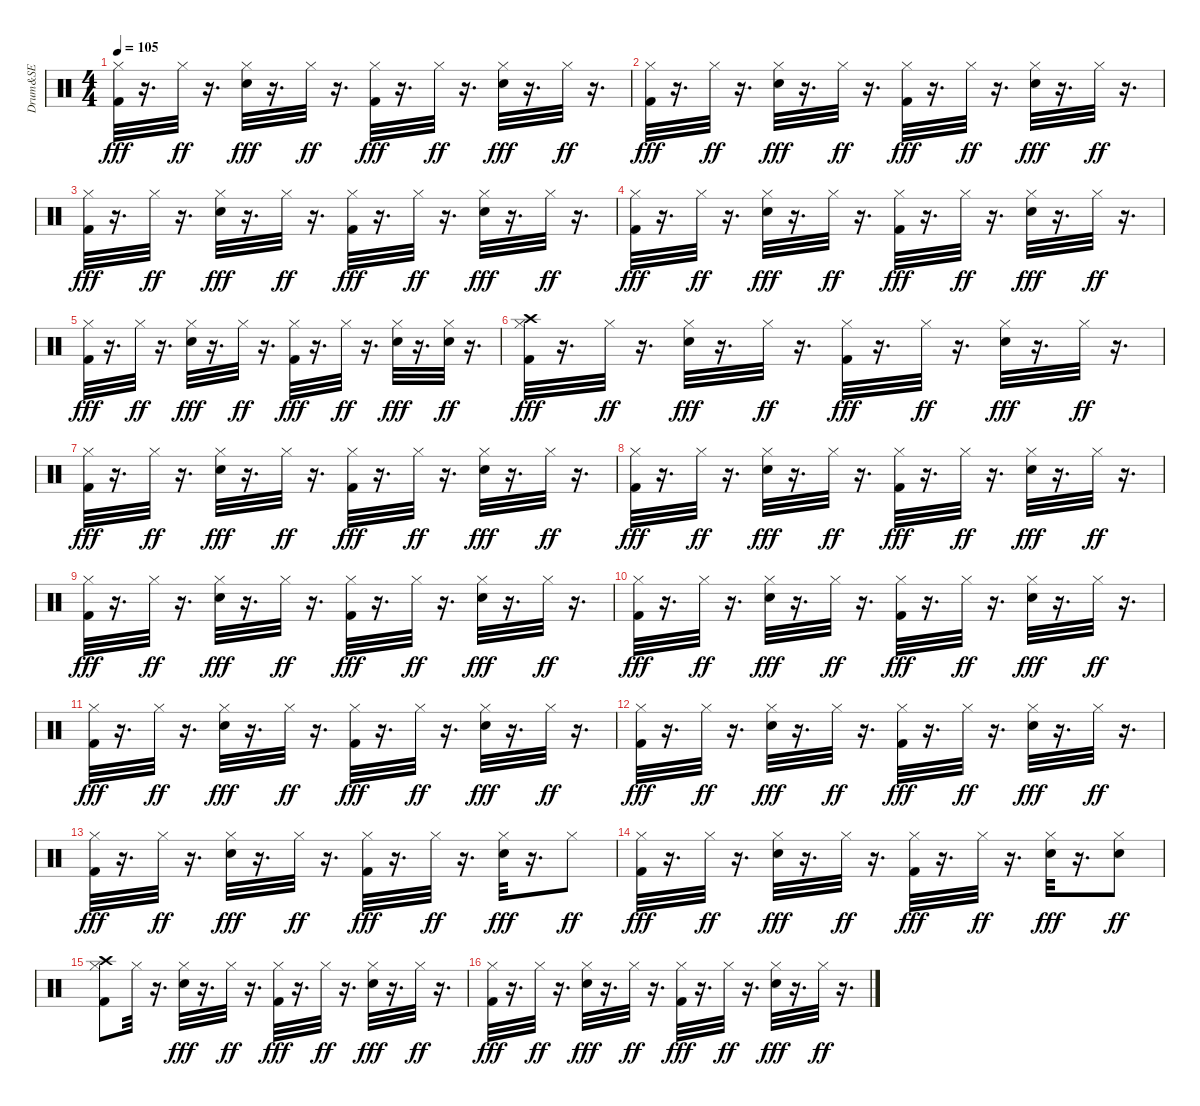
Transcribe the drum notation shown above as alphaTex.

\track ("Drum&SE" "Drum&SE") {instrument percussion}
\staff {score}
\articulation defaults
\ts (4 4)
\tempo 105
\clef neutral
\ks c
("Kick (hit) 2" "Hi-Hat (closed)").32{dy fff} r.16{d} "Hi-Hat (closed)".32{dy ff} r.16{d} ("Snare (hit) 2" "Hi-Hat (closed)").32{dy fff} r.16{d} "Hi-Hat (closed)".32{dy ff} r.16{d} ("Kick (hit) 2" "Hi-Hat (closed)").32{dy fff} r.16{d} "Hi-Hat (closed)".32{dy ff} r.16{d} ("Snare (hit) 2" "Hi-Hat (closed)").32{dy fff} r.16{d} "Hi-Hat (closed)".32{dy ff} r.16{d} |
("Kick (hit) 2" "Hi-Hat (closed)").32{dy fff} r.16{d} "Hi-Hat (closed)".32{dy ff} r.16{d} ("Snare (hit) 2" "Hi-Hat (closed)").32{dy fff} r.16{d} "Hi-Hat (closed)".32{dy ff} r.16{d} ("Kick (hit) 2" "Hi-Hat (closed)").32{dy fff} r.16{d} "Hi-Hat (closed)".32{dy ff} r.16{d} ("Snare (hit) 2" "Hi-Hat (closed)").32{dy fff} r.16{d} "Hi-Hat (closed)".32{dy ff} r.16{d} |
("Kick (hit) 2" "Hi-Hat (closed)").32{dy fff} r.16{d} "Hi-Hat (closed)".32{dy ff} r.16{d} ("Snare (hit) 2" "Hi-Hat (closed)").32{dy fff} r.16{d} "Hi-Hat (closed)".32{dy ff} r.16{d} ("Kick (hit) 2" "Hi-Hat (closed)").32{dy fff} r.16{d} "Hi-Hat (closed)".32{dy ff} r.16{d} ("Snare (hit) 2" "Hi-Hat (closed)").32{dy fff} r.16{d} "Hi-Hat (closed)".32{dy ff} r.16{d} |
("Kick (hit) 2" "Hi-Hat (closed)").32{dy fff} r.16{d} "Hi-Hat (closed)".32{dy ff} r.16{d} ("Snare (hit) 2" "Hi-Hat (closed)").32{dy fff} r.16{d} "Hi-Hat (closed)".32{dy ff} r.16{d} ("Kick (hit) 2" "Hi-Hat (closed)").32{dy fff} r.16{d} "Hi-Hat (closed)".32{dy ff} r.16{d} ("Snare (hit) 2" "Hi-Hat (closed)").32{dy fff} r.16{d} "Hi-Hat (closed)".32{dy ff} r.16{d} |
("Kick (hit) 2" "Hi-Hat (closed)").32{dy fff} r.16{d} "Hi-Hat (closed)".32{dy ff} r.16{d} ("Snare (hit) 2" "Hi-Hat (closed)").32{dy fff} r.16{d} "Hi-Hat (closed)".32{dy ff} r.16{d} ("Kick (hit) 2" "Hi-Hat (closed)").32{dy fff} r.16{d} "Hi-Hat (closed)".32{dy ff} r.16{d} ("Snare (hit) 2" "Hi-Hat (closed)").32{dy fff} r.16{d} ("Snare (hit) 2" "Hi-Hat (closed)").32{dy ff} r.16{d} |
("Kick (hit) 2" "Hi-Hat (closed)" "Crash high (hit)").32{dy fff} r.16{d} "Hi-Hat (closed)".32{dy ff} r.16{d} ("Snare (hit) 2" "Hi-Hat (closed)").32{dy fff} r.16{d} "Hi-Hat (closed)".32{dy ff} r.16{d} ("Kick (hit) 2" "Hi-Hat (closed)").32{dy fff} r.16{d} "Hi-Hat (closed)".32{dy ff} r.16{d} ("Snare (hit) 2" "Hi-Hat (closed)").32{dy fff} r.16{d} "Hi-Hat (closed)".32{dy ff} r.16{d} |
("Kick (hit) 2" "Hi-Hat (closed)").32{dy fff} r.16{d} "Hi-Hat (closed)".32{dy ff} r.16{d} ("Snare (hit) 2" "Hi-Hat (closed)").32{dy fff} r.16{d} "Hi-Hat (closed)".32{dy ff} r.16{d} ("Kick (hit) 2" "Hi-Hat (closed)").32{dy fff} r.16{d} "Hi-Hat (closed)".32{dy ff} r.16{d} ("Snare (hit) 2" "Hi-Hat (closed)").32{dy fff} r.16{d} "Hi-Hat (closed)".32{dy ff} r.16{d} |
("Kick (hit) 2" "Hi-Hat (closed)").32{dy fff} r.16{d} "Hi-Hat (closed)".32{dy ff} r.16{d} ("Snare (hit) 2" "Hi-Hat (closed)").32{dy fff} r.16{d} "Hi-Hat (closed)".32{dy ff} r.16{d} ("Kick (hit) 2" "Hi-Hat (closed)").32{dy fff} r.16{d} "Hi-Hat (closed)".32{dy ff} r.16{d} ("Snare (hit) 2" "Hi-Hat (closed)").32{dy fff} r.16{d} "Hi-Hat (closed)".32{dy ff} r.16{d} |
("Kick (hit) 2" "Hi-Hat (closed)").32{dy fff} r.16{d} "Hi-Hat (closed)".32{dy ff} r.16{d} ("Snare (hit) 2" "Hi-Hat (closed)").32{dy fff} r.16{d} "Hi-Hat (closed)".32{dy ff} r.16{d} ("Kick (hit) 2" "Hi-Hat (closed)").32{dy fff} r.16{d} "Hi-Hat (closed)".32{dy ff} r.16{d} ("Snare (hit) 2" "Hi-Hat (closed)").32{dy fff} r.16{d} "Hi-Hat (closed)".32{dy ff} r.16{d} |
("Kick (hit) 2" "Hi-Hat (closed)").32{dy fff} r.16{d} "Hi-Hat (closed)".32{dy ff} r.16{d} ("Snare (hit) 2" "Hi-Hat (closed)").32{dy fff} r.16{d} "Hi-Hat (closed)".32{dy ff} r.16{d} ("Kick (hit) 2" "Hi-Hat (closed)").32{dy fff} r.16{d} "Hi-Hat (closed)".32{dy ff} r.16{d} ("Snare (hit) 2" "Hi-Hat (closed)").32{dy fff} r.16{d} "Hi-Hat (closed)".32{dy ff} r.16{d} |
("Kick (hit) 2" "Hi-Hat (closed)").32{dy fff} r.16{d} "Hi-Hat (closed)".32{dy ff} r.16{d} ("Snare (hit) 2" "Hi-Hat (closed)").32{dy fff} r.16{d} "Hi-Hat (closed)".32{dy ff} r.16{d} ("Kick (hit) 2" "Hi-Hat (closed)").32{dy fff} r.16{d} "Hi-Hat (closed)".32{dy ff} r.16{d} ("Snare (hit) 2" "Hi-Hat (closed)").32{dy fff} r.16{d} "Hi-Hat (closed)".32{dy ff} r.16{d} |
("Kick (hit) 2" "Hi-Hat (closed)").32{dy fff} r.16{d} "Hi-Hat (closed)".32{dy ff} r.16{d} ("Snare (hit) 2" "Hi-Hat (closed)").32{dy fff} r.16{d} "Hi-Hat (closed)".32{dy ff} r.16{d} ("Kick (hit) 2" "Hi-Hat (closed)").32{dy fff} r.16{d} "Hi-Hat (closed)".32{dy ff} r.16{d} ("Snare (hit) 2" "Hi-Hat (closed)").32{dy fff} r.16{d} "Hi-Hat (closed)".32{dy ff} r.16{d} |
("Kick (hit) 2" "Hi-Hat (closed)").32{dy fff} r.16{d} "Hi-Hat (closed)".32{dy ff} r.16{d} ("Snare (hit) 2" "Hi-Hat (closed)").32{dy fff} r.16{d} "Hi-Hat (closed)".32{dy ff} r.16{d} ("Kick (hit) 2" "Hi-Hat (closed)").32{dy fff} r.16{d} "Hi-Hat (closed)".32{dy ff} r.16{d} ("Snare (hit) 2" "Hi-Hat (closed)").32{dy fff} r.16{d} "Hi-Hat (closed)".8{dy ff} |
("Kick (hit) 2" "Hi-Hat (closed)").32{dy fff} r.16{d} "Hi-Hat (closed)".32{dy ff} r.16{d} ("Snare (hit) 2" "Hi-Hat (closed)").32{dy fff} r.16{d} "Hi-Hat (closed)".32{dy ff} r.16{d} ("Kick (hit) 2" "Hi-Hat (closed)").32{dy fff} r.16{d} "Hi-Hat (closed)".32{dy ff} r.16{d} ("Snare (hit) 2" "Hi-Hat (closed)").32{dy fff} r.16{d} ("Snare (hit) 2" "Hi-Hat (closed)").8{dy ff} |
("Kick (hit) 2" "Hi-Hat (closed)" "Crash high (hit)").8 "Hi-Hat (closed)".32 r.16{d} ("Snare (hit) 2" "Hi-Hat (closed)").32{dy fff} r.16{d} "Hi-Hat (closed)".32{dy ff} r.16{d} ("Kick (hit) 2" "Hi-Hat (closed)").32{dy fff} r.16{d} "Hi-Hat (closed)".32{dy ff} r.16{d} ("Snare (hit) 2" "Hi-Hat (closed)").32{dy fff} r.16{d} "Hi-Hat (closed)".32{dy ff} r.16{d} |
("Kick (hit) 2" "Hi-Hat (closed)").32{dy fff} r.16{d} "Hi-Hat (closed)".32{dy ff} r.16{d} ("Snare (hit) 2" "Hi-Hat (closed)").32{dy fff} r.16{d} "Hi-Hat (closed)".32{dy ff} r.16{d} ("Kick (hit) 2" "Hi-Hat (closed)").32{dy fff} r.16{d} "Hi-Hat (closed)".32{dy ff} r.16{d} ("Snare (hit) 2" "Hi-Hat (closed)").32{dy fff} r.16{d} "Hi-Hat (closed)".32{dy ff} r.16{d}
